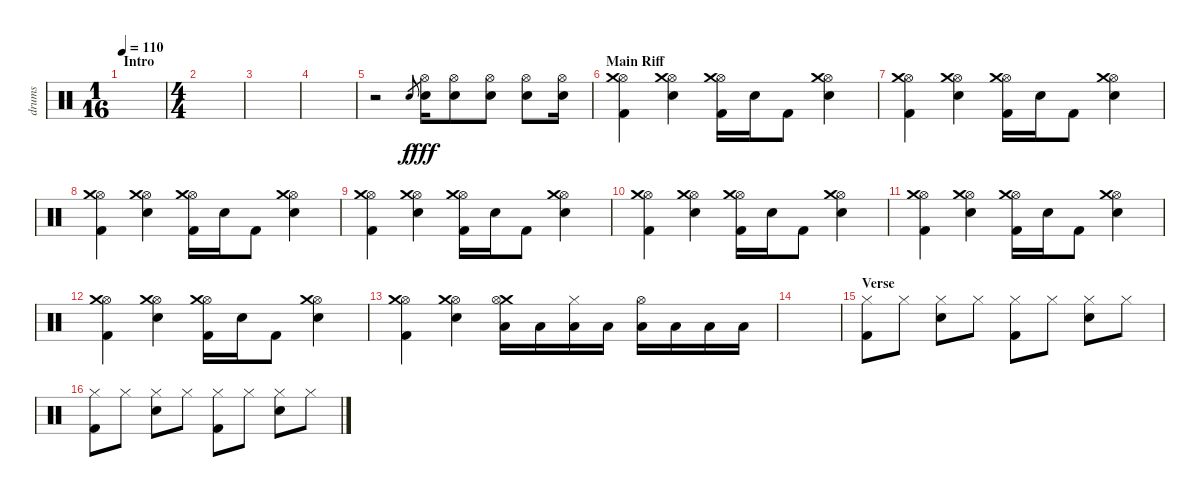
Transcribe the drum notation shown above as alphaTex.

\track ("drums" "drums") {instrument percussion}
\staff {score}
\articulation defaults
\ts (1 16)
\section ("" "Intro")
\tempo 110
\clef neutral
\ks c
|
\ts (4 4)
|
|
|
r.2 "Electric Snare (hit)".8{gr} ("Electric Snare (hit)" "Hi-Hat (open)").16{dy fff} ("Electric Snare (hit)" "Hi-Hat (open)").8 ("Electric Snare (hit)" "Hi-Hat (open)").8 ("Electric Snare (hit)" "Hi-Hat (open)").8 ("Electric Snare (hit)" "Hi-Hat (open)").16 |
\section ("" "Main Riff")
("Kick (hit) 2" "Hi-Hat (open)" "Crash medium (hit)").4 ("Electric Snare (hit)" "Hi-Hat (open)" "Crash medium (hit)").4 ("Kick (hit) 2" "Hi-Hat (open)" "Crash medium (hit)").16 "Electric Snare (hit)".16 "Kick (hit) 2".8 ("Electric Snare (hit)" "Hi-Hat (open)" "Crash medium (hit)").4 |
("Kick (hit) 2" "Hi-Hat (open)" "Crash medium (hit)").4 ("Electric Snare (hit)" "Hi-Hat (open)" "Crash medium (hit)").4 ("Kick (hit) 2" "Hi-Hat (open)" "Crash medium (hit)").16 "Electric Snare (hit)".16 "Kick (hit) 2".8 ("Electric Snare (hit)" "Hi-Hat (open)" "Crash medium (hit)").4 |
("Kick (hit) 2" "Hi-Hat (open)" "Crash medium (hit)").4 ("Electric Snare (hit)" "Hi-Hat (open)" "Crash medium (hit)").4 ("Kick (hit) 2" "Hi-Hat (open)" "Crash medium (hit)").16 "Electric Snare (hit)".16 "Kick (hit) 2".8 ("Electric Snare (hit)" "Hi-Hat (open)" "Crash medium (hit)").4 |
("Kick (hit) 2" "Hi-Hat (open)" "Crash medium (hit)").4 ("Electric Snare (hit)" "Hi-Hat (open)" "Crash medium (hit)").4 ("Kick (hit) 2" "Hi-Hat (open)" "Crash medium (hit)").16 "Electric Snare (hit)".16 "Kick (hit) 2".8 ("Electric Snare (hit)" "Hi-Hat (open)" "Crash medium (hit)").4 |
("Kick (hit) 2" "Hi-Hat (open)" "Crash medium (hit)").4 ("Electric Snare (hit)" "Hi-Hat (open)" "Crash medium (hit)").4 ("Kick (hit) 2" "Hi-Hat (open)" "Crash medium (hit)").16 "Electric Snare (hit)".16 "Kick (hit) 2".8 ("Electric Snare (hit)" "Hi-Hat (open)" "Crash medium (hit)").4 |
("Kick (hit) 2" "Hi-Hat (open)" "Crash medium (hit)").4 ("Electric Snare (hit)" "Hi-Hat (open)" "Crash medium (hit)").4 ("Kick (hit) 2" "Hi-Hat (open)" "Crash medium (hit)").16 "Electric Snare (hit)".16 "Kick (hit) 2".8 ("Electric Snare (hit)" "Hi-Hat (open)" "Crash medium (hit)").4 |
("Kick (hit) 2" "Hi-Hat (open)" "Crash medium (hit)").4 ("Electric Snare (hit)" "Hi-Hat (open)" "Crash medium (hit)").4 ("Kick (hit) 2" "Hi-Hat (open)" "Crash medium (hit)").16 "Electric Snare (hit)".16 "Kick (hit) 2".8 ("Electric Snare (hit)" "Hi-Hat (open)" "Crash medium (hit)").4 |
("Kick (hit) 2" "Hi-Hat (open)" "Crash medium (hit)").4 ("Electric Snare (hit)" "Hi-Hat (open)" "Crash medium (hit)").4 ("Crash medium (hit)" "Hi-Hat (open)" "Low Tom (hit)").16 "Low Tom (hit)".16 ("Hi-Hat (closed)" "Low Tom (hit)").16 "Low Tom (hit)".16 ("Hi-Hat (open)" "Low Floor Tom (hit)").16 "Low Floor Tom (hit)".16 "Low Floor Tom (hit)".16 "Low Floor Tom (hit)".16 |
|
\section ("" "Verse")
("Kick (hit) 2" "Hi-Hat (closed)").8 "Hi-Hat (closed)".8 ("Electric Snare (hit)" "Hi-Hat (closed)").8 "Hi-Hat (closed)".8 ("Kick (hit) 2" "Hi-Hat (closed)").8 "Hi-Hat (closed)".8 ("Electric Snare (hit)" "Hi-Hat (closed)").8 "Hi-Hat (closed)".8 |
("Kick (hit) 2" "Hi-Hat (closed)").8 "Hi-Hat (closed)".8 ("Electric Snare (hit)" "Hi-Hat (closed)").8 "Hi-Hat (closed)".8 ("Kick (hit) 2" "Hi-Hat (closed)").8 "Hi-Hat (closed)".8 ("Electric Snare (hit)" "Hi-Hat (closed)").8 "Hi-Hat (closed)".8
